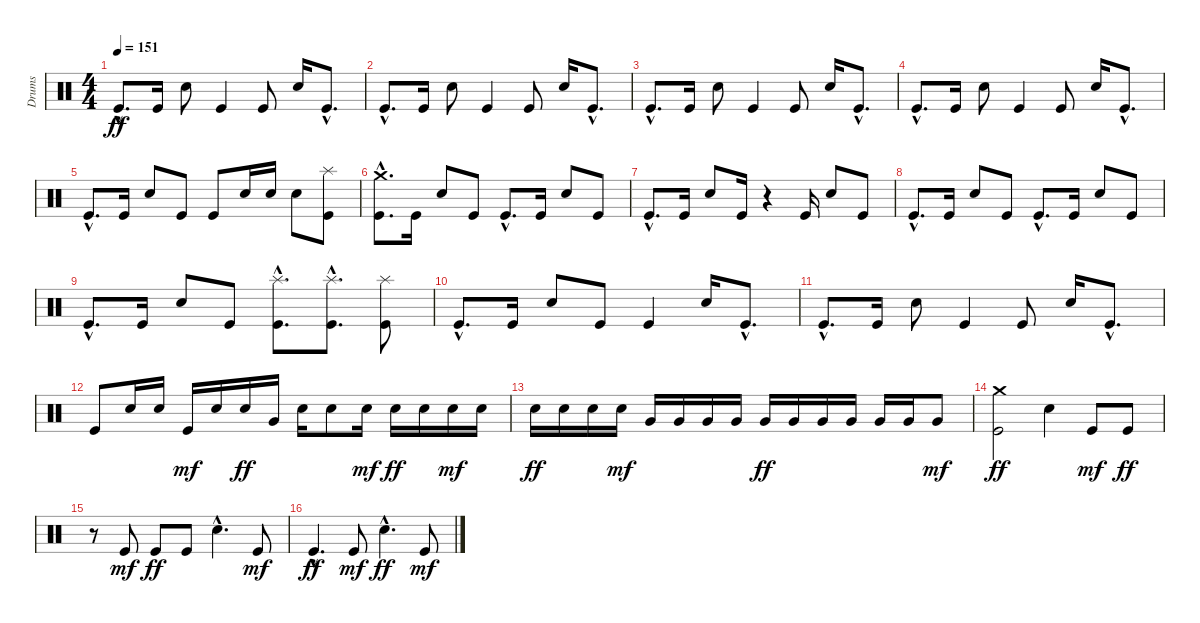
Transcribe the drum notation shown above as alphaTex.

\track ("Drums" "Drums") {instrument percussion}
\staff {score}
\articulation defaults
\ts (4 4)
\tempo 151
\clef neutral
\ks c "Kick (hit)"{hac}.8{d dy ff} "Kick (hit)".16 "Snare (hit) 2".8 "Kick (hit)".4 "Kick (hit)".8 "Snare (hit) 2".16 "Kick (hit)"{hac}.8{d}
|
"Kick (hit)"{hac}.8{d} "Kick (hit)".16 "Snare (hit) 2".8 "Kick (hit)".4 "Kick (hit)".8 "Snare (hit) 2".16 "Kick (hit)"{hac}.8{d} |
"Kick (hit)"{hac}.8{d} "Kick (hit)".16 "Snare (hit) 2".8 "Kick (hit)".4 "Kick (hit)".8 "Snare (hit) 2".16 "Kick (hit)"{hac}.8{d} |
"Kick (hit)"{hac}.8{d} "Kick (hit)".16 "Snare (hit) 2".8 "Kick (hit)".4 "Kick (hit)".8 "Snare (hit) 2".16 "Kick (hit)"{hac}.8{d} |
"Kick (hit)"{hac}.8{d} "Kick (hit)".16 "Snare (hit) 2".8 "Kick (hit)".8 "Kick (hit)".8 "Snare (hit) 2".16 "Snare (hit) 2".16 "Snare (hit) 2".8 ("Splash (hit)" "Kick (hit)").8 |
("Crash medium (hit)"{hac} "Kick (hit)"{hac}).8{d} "Kick (hit)".16 "Snare (hit) 2".8 "Kick (hit)".8 "Kick (hit)"{hac}.8{d} "Kick (hit)".16 "Snare (hit) 2".8 "Kick (hit)".8 |
"Kick (hit)"{hac}.8{d} "Kick (hit)".16 "Snare (hit) 2".8 "Kick (hit)".16 r.4 "Kick (hit)".16 "Snare (hit) 2".8 "Kick (hit)".8 |
"Kick (hit)"{hac}.8{d} "Kick (hit)".16 "Snare (hit) 2".8 "Kick (hit)".8 "Kick (hit)"{hac}.8{d} "Kick (hit)".16 "Snare (hit) 2".8 "Kick (hit)".8 |
"Kick (hit)"{hac}.8{d} "Kick (hit)".16 "Snare (hit) 2".8 "Kick (hit)".8 ("Splash (hit)"{hac} "Kick (hit)"{hac}).8{d} ("Splash (hit)"{hac} "Kick (hit)"{hac}).8{d} ("Splash (hit)" "Kick (hit)").8 |
"Kick (hit)"{hac}.8{d} "Kick (hit)".16 "Snare (hit) 2".8 "Kick (hit)".8 "Kick (hit)".4 "Snare (hit) 2".16 "Kick (hit)"{hac}.8{d} |
"Kick (hit)"{hac}.8{d} "Kick (hit)".16 "Snare (hit) 2".8 "Kick (hit)".4 "Kick (hit)".8 "Snare (hit) 2".16 "Kick (hit)"{hac}.8{d} |
"Kick (hit)".8 "Snare (hit) 2".16 "Snare (hit) 2".16 "Kick (hit)".16{dy mf} "Snare (hit) 2".16 "Snare (hit) 2".16{dy ff} "Very Low Tom (hit)".16 "Snare (hit) 2".16 "Snare (hit) 2".8 "Snare (hit) 2".16{dy mf} "Snare (hit) 2".16{dy ff} "Snare (hit) 2".16 "Snare (hit) 2".16{dy mf} "Snare (hit) 2".16 |
"Snare (hit) 2".16{dy ff} "Snare (hit) 2".16 "Snare (hit) 2".16 "Snare (hit) 2".16{dy mf} "Very Low Tom (hit)".16 "Very Low Tom (hit)".16 "Very Low Tom (hit)".16 "Very Low Tom (hit)".16 "Very Low Tom (hit)".16{dy ff} "Very Low Tom (hit)".16 "Very Low Tom (hit)".16 "Very Low Tom (hit)".16 "Very Low Tom (hit)".16 "Very Low Tom (hit)".16 "Very Low Tom (hit)".8{dy mf} |
("Crash medium (hit)" "Kick (hit)").2{dy ff} "Snare (hit) 2".4 "Kick (hit)".8{dy mf} "Kick (hit)".8{dy ff} |
r.8 "Kick (hit)".8{dy mf} "Kick (hit)".8{dy ff} "Kick (hit)".8 "Snare (hit) 2"{hac}.4{d} "Kick (hit)".8{dy mf} |
"Kick (hit)"{hac}.4{d dy ff} "Kick (hit)".8{dy mf} "Snare (hit) 2"{hac}.4{d dy ff} "Kick (hit)".8{dy mf}
